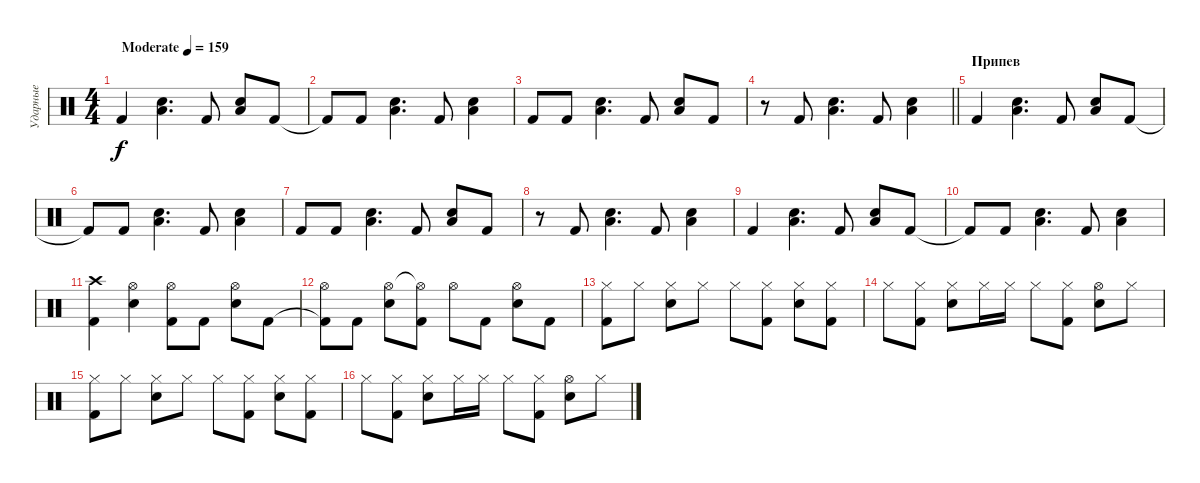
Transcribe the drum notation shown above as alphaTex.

\track ("Ударные" "Ударные") {instrument percussion}
\staff {score}
\articulation defaults
\ts (4 4)
\tempo (159 "Moderate")
\clef neutral
\ks c "Kick (hit) 2".4{dy f}
("Snare (hit) 2" "Low Floor Tom (hit)").4{d} "Kick (hit) 2".8 ("Snare (hit) 2" "Low Floor Tom (hit)").8 "Kick (hit) 2".8 |
"Kick (hit) 2"{t}.8 "Kick (hit) 2".8 ("Snare (hit) 2" "Low Floor Tom (hit)").4{d} "Kick (hit) 2".8 ("Snare (hit) 2" "Low Floor Tom (hit)").4 |
"Kick (hit) 2".8 "Kick (hit) 2".8 ("Snare (hit) 2" "Low Floor Tom (hit)").4{d} "Kick (hit) 2".8 ("Snare (hit) 2" "Low Floor Tom (hit)").8 "Kick (hit) 2".8 |
\barLineRight lightlight
r.8 "Kick (hit) 2".8 ("Snare (hit) 2" "Low Floor Tom (hit)").4{d} "Kick (hit) 2".8 ("Snare (hit) 2" "Low Floor Tom (hit)").4 |
\section ("" "Припев")
"Kick (hit) 2".4 ("Snare (hit) 2" "Low Floor Tom (hit)").4{d} "Kick (hit) 2".8 ("Snare (hit) 2" "Low Floor Tom (hit)").8 "Kick (hit) 2".8 |
"Kick (hit) 2"{t}.8 "Kick (hit) 2".8 ("Snare (hit) 2" "Low Floor Tom (hit)").4{d} "Kick (hit) 2".8 ("Snare (hit) 2" "Low Floor Tom (hit)").4 |
"Kick (hit) 2".8 "Kick (hit) 2".8 ("Snare (hit) 2" "Low Floor Tom (hit)").4{d} "Kick (hit) 2".8 ("Snare (hit) 2" "Low Floor Tom (hit)").8 "Kick (hit) 2".8 |
r.8 "Kick (hit) 2".8 ("Snare (hit) 2" "Low Floor Tom (hit)").4{d} "Kick (hit) 2".8 ("Snare (hit) 2" "Low Floor Tom (hit)").4 |
"Kick (hit) 2".4 ("Snare (hit) 2" "Low Floor Tom (hit)").4{d} "Kick (hit) 2".8 ("Snare (hit) 2" "Low Floor Tom (hit)").8 "Kick (hit) 2".8 |
"Kick (hit) 2"{t}.8 "Kick (hit) 2".8 ("Snare (hit) 2" "Low Floor Tom (hit)").4{d} "Kick (hit) 2".8 ("Snare (hit) 2" "Low Floor Tom (hit)").4 |
("Kick (hit) 2" "Crash high (hit)").4 ("Snare (hit) 2" "Hi-Hat (open)").4 ("Kick (hit) 2" "Hi-Hat (open)").8 "Kick (hit) 2".8 ("Snare (hit) 2" "Hi-Hat (open)").8 "Kick (hit) 2".8 |
("Kick (hit) 2"{t} "Hi-Hat (open)").8 "Kick (hit) 2".8 ("Snare (hit) 2" "Hi-Hat (open)").8 ("Kick (hit) 2" "Hi-Hat (open)"{t}).8 "Hi-Hat (open)".8 "Kick (hit) 2".8 ("Snare (hit) 2" "Hi-Hat (open)").8 "Kick (hit) 2".8 |
("Kick (hit) 2" "Hi-Hat (closed)").8 "Hi-Hat (closed)".8 ("Snare (hit) 2" "Hi-Hat (closed)").8 "Hi-Hat (closed)".8 "Hi-Hat (closed)".8 ("Kick (hit) 2" "Hi-Hat (closed)").8 ("Snare (hit) 2" "Hi-Hat (closed)").8 ("Kick (hit) 2" "Hi-Hat (closed)").8 |
"Hi-Hat (closed)".8 ("Kick (hit) 2" "Hi-Hat (closed)").8 ("Snare (hit) 2" "Hi-Hat (closed)").8 "Hi-Hat (closed)".16 "Hi-Hat (closed)".16 "Hi-Hat (closed)".8 ("Kick (hit) 2" "Hi-Hat (closed)").8 ("Snare (hit) 2" "Hi-Hat (open)").8 "Hi-Hat (closed)".8 |
("Kick (hit) 2" "Hi-Hat (closed)").8 "Hi-Hat (closed)".8 ("Snare (hit) 2" "Hi-Hat (closed)").8 "Hi-Hat (closed)".8 "Hi-Hat (closed)".8 ("Kick (hit) 2" "Hi-Hat (closed)").8 ("Snare (hit) 2" "Hi-Hat (closed)").8 ("Kick (hit) 2" "Hi-Hat (closed)").8 |
"Hi-Hat (closed)".8 ("Kick (hit) 2" "Hi-Hat (closed)").8 ("Snare (hit) 2" "Hi-Hat (closed)").8 "Hi-Hat (closed)".16 "Hi-Hat (closed)".16 "Hi-Hat (closed)".8 ("Kick (hit) 2" "Hi-Hat (closed)").8 ("Snare (hit) 2" "Hi-Hat (open)").8 "Hi-Hat (closed)".8
